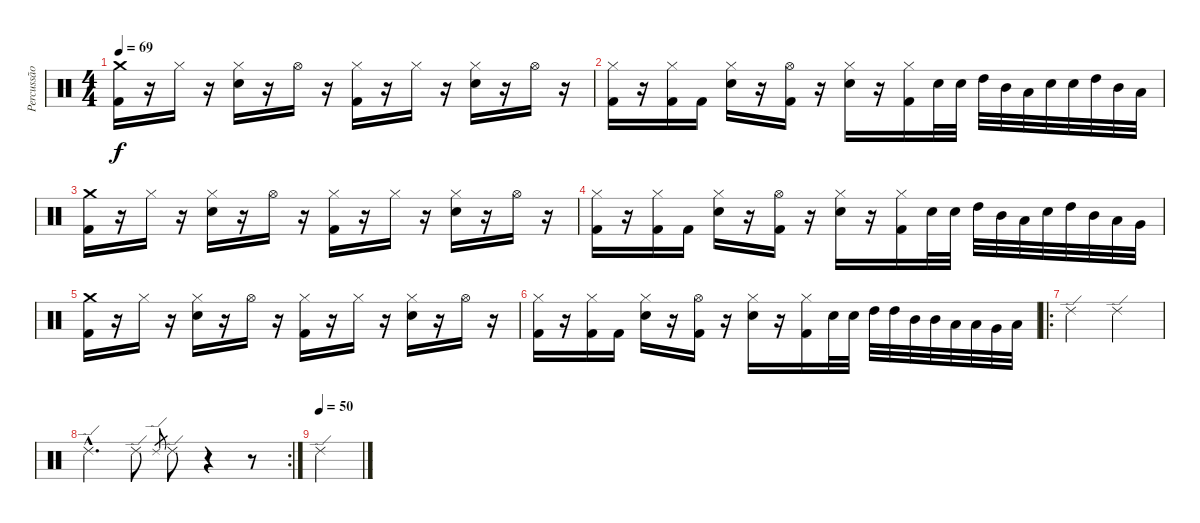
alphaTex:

\track ("Percussão" "Percussão") {instrument percussion}
\staff {score}
\articulation defaults
\ts (4 4)
\tempo 69
\clef neutral
\ks c
("Crash medium (hit)" "Kick (hit) 2").16{dy f} r.16 "Hi-Hat (closed)".16 r.16 ("Hi-Hat (closed)" "Snare (hit) 2").16 r.16 "Hi-Hat (open)".16 r.16 ("Hi-Hat (closed)" "Kick (hit) 2").16 r.16 "Hi-Hat (closed)".16 r.16 ("Hi-Hat (closed)" "Snare (hit) 2").16 r.16 "Hi-Hat (open)".16 r.16 |
("Hi-Hat (closed)" "Kick (hit) 2").16 r.16 ("Hi-Hat (closed)" "Kick (hit) 2").16 "Kick (hit) 2".16 ("Hi-Hat (closed)" "Snare (hit) 2").16 r.16 ("Hi-Hat (open)" "Kick (hit) 2").16 r.16 ("Hi-Hat (closed)" "Snare (hit) 2").16 r.16 ("Hi-Hat (closed)" "Kick (hit) 2").16 "Snare (hit) 2".32 "Snare (hit) 2".32 "High Tom (hit)".32 "Mid Tom (hit)".32 "Low Tom (hit)".32 "Snare (hit) 2".32 "Snare (hit) 2".32 "High Tom (hit)".32 "Mid Tom (hit)".32 "Low Tom (hit)".32 |
("Crash medium (hit)" "Kick (hit) 2").16 r.16 "Hi-Hat (closed)".16 r.16 ("Hi-Hat (closed)" "Snare (hit) 2").16 r.16 "Hi-Hat (open)".16 r.16 ("Hi-Hat (closed)" "Kick (hit) 2").16 r.16 "Hi-Hat (closed)".16 r.16 ("Hi-Hat (closed)" "Snare (hit) 2").16 r.16 "Hi-Hat (open)".16 r.16 |
("Hi-Hat (closed)" "Kick (hit) 2").16 r.16 ("Hi-Hat (closed)" "Kick (hit) 2").16 "Kick (hit) 2".16 ("Hi-Hat (closed)" "Snare (hit) 2").16 r.16 ("Hi-Hat (open)" "Kick (hit) 2").16 r.16 ("Hi-Hat (closed)" "Snare (hit) 2").16 r.16 ("Hi-Hat (closed)" "Kick (hit) 2").16 "Snare (hit) 2".32 "Snare (hit) 2".32 "High Tom (hit)".32 "Mid Tom (hit)".32 "Low Tom (hit)".32 "Snare (hit) 2".32 "High Tom (hit)".32 "Mid Tom (hit)".32 "Low Tom (hit)".32 "Very Low Tom (hit)".32 |
("Crash medium (hit)" "Kick (hit) 2").16 r.16 "Hi-Hat (closed)".16 r.16 ("Hi-Hat (closed)" "Snare (hit) 2").16 r.16 "Hi-Hat (open)".16 r.16 ("Hi-Hat (closed)" "Kick (hit) 2").16 r.16 "Hi-Hat (closed)".16 r.16 ("Hi-Hat (closed)" "Snare (hit) 2").16 r.16 "Hi-Hat (open)".16 r.16 |
("Hi-Hat (closed)" "Kick (hit) 2").16 r.16 ("Hi-Hat (closed)" "Kick (hit) 2").16 "Kick (hit) 2".16 ("Hi-Hat (closed)" "Snare (hit) 2").16 r.16 ("Hi-Hat (open)" "Kick (hit) 2").16 r.16 ("Hi-Hat (closed)" "Snare (hit) 2").16 r.16 ("Hi-Hat (closed)" "Kick (hit) 2").16 "Snare (hit) 2".32 "Snare (hit) 2".32 "High Tom (hit)".32 "High Tom (hit)".32 "Mid Tom (hit)".32 "Mid Tom (hit)".32 "Low Tom (hit)".32 "Low Tom (hit)".32 "Very Low Tom (hit)".32 "Low Floor Tom (hit)".32 |
\ro "Ride (edge) 2".2 "Ride (edge) 2".2
|
\rc 2 "Ride (edge) 2"{hac}.4{d} "Ride (edge) 2".8 "Ride (edge) 2".8{gr} "Ride (edge) 2".8
r.4 r.8 |
\tempo (50)
"Ride (edge) 2".2
